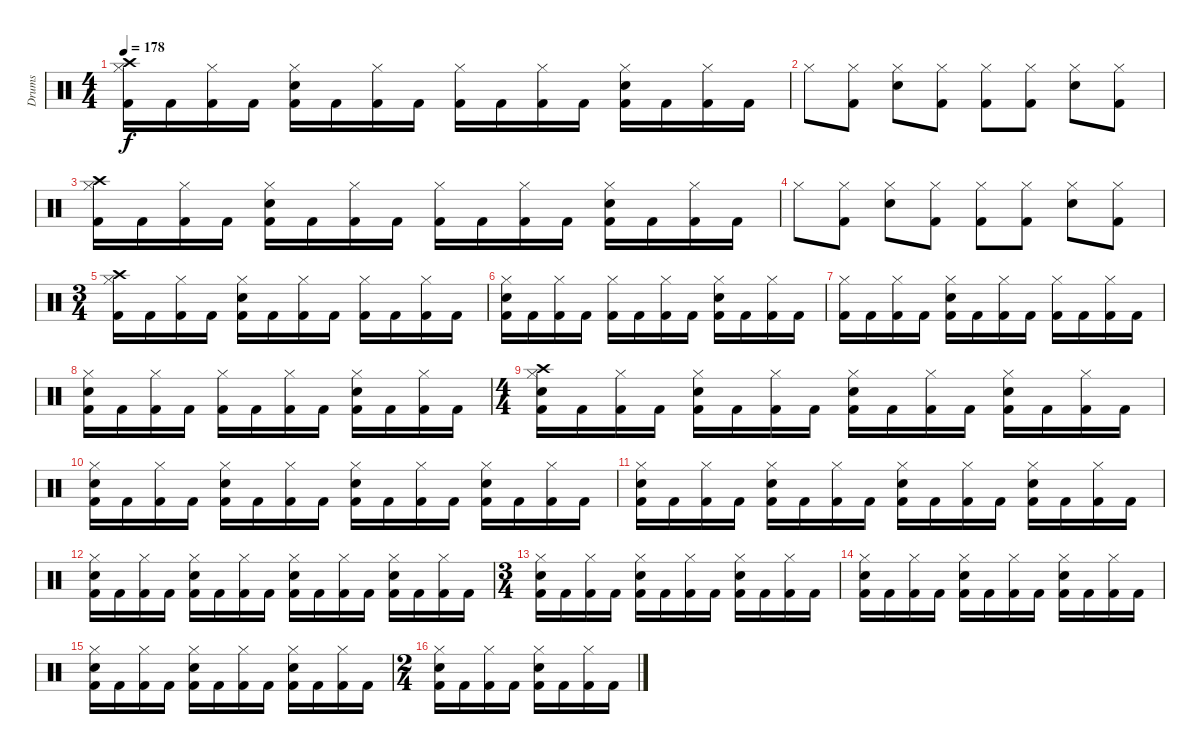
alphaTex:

\track ("Drums" "Drums") {instrument percussion}
\staff {score}
\articulation defaults
\ts (4 4)
\tempo 178
\clef neutral
\ks c
("Kick (hit) 2" "Hi-Hat (closed)" "Crash high (hit)").16{dy f} "Kick (hit) 2".16 ("Kick (hit) 2" "Hi-Hat (closed)").16 "Kick (hit) 2".16 ("Kick (hit) 2" "Snare (hit) 2" "Hi-Hat (closed)").16 "Kick (hit) 2".16 ("Kick (hit) 2" "Hi-Hat (closed)").16 "Kick (hit) 2".16 ("Kick (hit) 2" "Hi-Hat (closed)").16 "Kick (hit) 2".16 ("Kick (hit) 2" "Hi-Hat (closed)").16 "Kick (hit) 2".16 ("Kick (hit) 2" "Snare (hit) 2" "Hi-Hat (closed)").16 "Kick (hit) 2".16 ("Kick (hit) 2" "Hi-Hat (closed)").16 "Kick (hit) 2".16 |
"Hi-Hat (closed)".8 ("Kick (hit) 2" "Hi-Hat (closed)").8 ("Snare (hit) 2" "Hi-Hat (closed)").8 ("Kick (hit) 2" "Hi-Hat (closed)").8 ("Kick (hit) 2" "Hi-Hat (closed)").8 ("Kick (hit) 2" "Hi-Hat (closed)").8 ("Snare (hit) 2" "Hi-Hat (closed)").8 ("Kick (hit) 2" "Hi-Hat (closed)").8 |
("Kick (hit) 2" "Hi-Hat (closed)" "Crash high (hit)").16 "Kick (hit) 2".16 ("Kick (hit) 2" "Hi-Hat (closed)").16 "Kick (hit) 2".16 ("Kick (hit) 2" "Snare (hit) 2" "Hi-Hat (closed)").16 "Kick (hit) 2".16 ("Kick (hit) 2" "Hi-Hat (closed)").16 "Kick (hit) 2".16 ("Kick (hit) 2" "Hi-Hat (closed)").16 "Kick (hit) 2".16 ("Kick (hit) 2" "Hi-Hat (closed)").16 "Kick (hit) 2".16 ("Kick (hit) 2" "Snare (hit) 2" "Hi-Hat (closed)").16 "Kick (hit) 2".16 ("Kick (hit) 2" "Hi-Hat (closed)").16 "Kick (hit) 2".16 |
"Hi-Hat (closed)".8 ("Kick (hit) 2" "Hi-Hat (closed)").8 ("Snare (hit) 2" "Hi-Hat (closed)").8 ("Kick (hit) 2" "Hi-Hat (closed)").8 ("Kick (hit) 2" "Hi-Hat (closed)").8 ("Kick (hit) 2" "Hi-Hat (closed)").8 ("Snare (hit) 2" "Hi-Hat (closed)").8 ("Kick (hit) 2" "Hi-Hat (closed)").8 |
\ts (3 4)
("Kick (hit) 2" "Hi-Hat (closed)" "Crash high (hit)").16 "Kick (hit) 2".16 ("Kick (hit) 2" "Hi-Hat (closed)").16 "Kick (hit) 2".16 ("Kick (hit) 2" "Snare (hit) 2" "Hi-Hat (closed)").16 "Kick (hit) 2".16 ("Kick (hit) 2" "Hi-Hat (closed)").16 "Kick (hit) 2".16 ("Kick (hit) 2" "Hi-Hat (closed)").16 "Kick (hit) 2".16 ("Kick (hit) 2" "Hi-Hat (closed)").16 "Kick (hit) 2".16 |
("Kick (hit) 2" "Snare (hit) 2" "Hi-Hat (closed)").16 "Kick (hit) 2".16 ("Kick (hit) 2" "Hi-Hat (closed)").16 "Kick (hit) 2".16 ("Kick (hit) 2" "Hi-Hat (closed)").16 "Kick (hit) 2".16 ("Kick (hit) 2" "Hi-Hat (closed)").16 "Kick (hit) 2".16 ("Kick (hit) 2" "Snare (hit) 2" "Hi-Hat (closed)").16 "Kick (hit) 2".16 ("Kick (hit) 2" "Hi-Hat (closed)").16 "Kick (hit) 2".16 |
("Kick (hit) 2" "Hi-Hat (closed)").16 "Kick (hit) 2".16 ("Kick (hit) 2" "Hi-Hat (closed)").16 "Kick (hit) 2".16 ("Kick (hit) 2" "Snare (hit) 2" "Hi-Hat (closed)").16 "Kick (hit) 2".16 ("Kick (hit) 2" "Hi-Hat (closed)").16 "Kick (hit) 2".16 ("Kick (hit) 2" "Hi-Hat (closed)").16 "Kick (hit) 2".16 ("Kick (hit) 2" "Hi-Hat (closed)").16 "Kick (hit) 2".16 |
("Kick (hit) 2" "Snare (hit) 2" "Hi-Hat (closed)").16 "Kick (hit) 2".16 ("Kick (hit) 2" "Hi-Hat (closed)").16 "Kick (hit) 2".16 ("Kick (hit) 2" "Hi-Hat (closed)").16 "Kick (hit) 2".16 ("Kick (hit) 2" "Hi-Hat (closed)").16 "Kick (hit) 2".16 ("Kick (hit) 2" "Snare (hit) 2" "Hi-Hat (closed)").16 "Kick (hit) 2".16 ("Kick (hit) 2" "Hi-Hat (closed)").16 "Kick (hit) 2".16 |
\ts (4 4)
("Kick (hit) 2" "Snare (hit) 2" "Hi-Hat (closed)" "Crash high (hit)").16 "Kick (hit) 2".16 ("Kick (hit) 2" "Hi-Hat (closed)").16 "Kick (hit) 2".16 ("Kick (hit) 2" "Snare (hit) 2" "Hi-Hat (closed)").16 "Kick (hit) 2".16 ("Kick (hit) 2" "Hi-Hat (closed)").16 "Kick (hit) 2".16 ("Kick (hit) 2" "Snare (hit) 2" "Hi-Hat (closed)").16 "Kick (hit) 2".16 ("Kick (hit) 2" "Hi-Hat (closed)").16 "Kick (hit) 2".16 ("Kick (hit) 2" "Snare (hit) 2" "Hi-Hat (closed)").16 "Kick (hit) 2".16 ("Kick (hit) 2" "Hi-Hat (closed)").16 "Kick (hit) 2".16 |
("Kick (hit) 2" "Snare (hit) 2" "Hi-Hat (closed)").16 "Kick (hit) 2".16 ("Kick (hit) 2" "Hi-Hat (closed)").16 "Kick (hit) 2".16 ("Kick (hit) 2" "Snare (hit) 2" "Hi-Hat (closed)").16 "Kick (hit) 2".16 ("Kick (hit) 2" "Hi-Hat (closed)").16 "Kick (hit) 2".16 ("Kick (hit) 2" "Snare (hit) 2" "Hi-Hat (closed)").16 "Kick (hit) 2".16 ("Kick (hit) 2" "Hi-Hat (closed)").16 "Kick (hit) 2".16 ("Kick (hit) 2" "Snare (hit) 2" "Hi-Hat (closed)").16 "Kick (hit) 2".16 ("Kick (hit) 2" "Hi-Hat (closed)").16 "Kick (hit) 2".16 |
("Kick (hit) 2" "Snare (hit) 2" "Hi-Hat (closed)").16 "Kick (hit) 2".16 ("Kick (hit) 2" "Hi-Hat (closed)").16 "Kick (hit) 2".16 ("Kick (hit) 2" "Snare (hit) 2" "Hi-Hat (closed)").16 "Kick (hit) 2".16 ("Kick (hit) 2" "Hi-Hat (closed)").16 "Kick (hit) 2".16 ("Kick (hit) 2" "Snare (hit) 2" "Hi-Hat (closed)").16 "Kick (hit) 2".16 ("Kick (hit) 2" "Hi-Hat (closed)").16 "Kick (hit) 2".16 ("Kick (hit) 2" "Snare (hit) 2" "Hi-Hat (closed)").16 "Kick (hit) 2".16 ("Kick (hit) 2" "Hi-Hat (closed)").16 "Kick (hit) 2".16 |
("Kick (hit) 2" "Snare (hit) 2" "Hi-Hat (closed)").16 "Kick (hit) 2".16 ("Kick (hit) 2" "Hi-Hat (closed)").16 "Kick (hit) 2".16 ("Kick (hit) 2" "Snare (hit) 2" "Hi-Hat (closed)").16 "Kick (hit) 2".16 ("Kick (hit) 2" "Hi-Hat (closed)").16 "Kick (hit) 2".16 ("Kick (hit) 2" "Snare (hit) 2" "Hi-Hat (closed)").16 "Kick (hit) 2".16 ("Kick (hit) 2" "Hi-Hat (closed)").16 "Kick (hit) 2".16 ("Kick (hit) 2" "Snare (hit) 2" "Hi-Hat (closed)").16 "Kick (hit) 2".16 ("Kick (hit) 2" "Hi-Hat (closed)").16 "Kick (hit) 2".16 |
\ts (3 4)
("Kick (hit) 2" "Snare (hit) 2" "Hi-Hat (closed)").16 "Kick (hit) 2".16 ("Kick (hit) 2" "Hi-Hat (closed)").16 "Kick (hit) 2".16 ("Kick (hit) 2" "Snare (hit) 2" "Hi-Hat (closed)").16 "Kick (hit) 2".16 ("Kick (hit) 2" "Hi-Hat (closed)").16 "Kick (hit) 2".16 ("Kick (hit) 2" "Snare (hit) 2" "Hi-Hat (closed)").16 "Kick (hit) 2".16 ("Kick (hit) 2" "Hi-Hat (closed)").16 "Kick (hit) 2".16 |
("Kick (hit) 2" "Snare (hit) 2" "Hi-Hat (closed)").16 "Kick (hit) 2".16 ("Kick (hit) 2" "Hi-Hat (closed)").16 "Kick (hit) 2".16 ("Kick (hit) 2" "Snare (hit) 2" "Hi-Hat (closed)").16 "Kick (hit) 2".16 ("Kick (hit) 2" "Hi-Hat (closed)").16 "Kick (hit) 2".16 ("Kick (hit) 2" "Snare (hit) 2" "Hi-Hat (closed)").16 "Kick (hit) 2".16 ("Kick (hit) 2" "Hi-Hat (closed)").16 "Kick (hit) 2".16 |
("Kick (hit) 2" "Snare (hit) 2" "Hi-Hat (closed)").16 "Kick (hit) 2".16 ("Kick (hit) 2" "Hi-Hat (closed)").16 "Kick (hit) 2".16 ("Kick (hit) 2" "Snare (hit) 2" "Hi-Hat (closed)").16 "Kick (hit) 2".16 ("Kick (hit) 2" "Hi-Hat (closed)").16 "Kick (hit) 2".16 ("Kick (hit) 2" "Snare (hit) 2" "Hi-Hat (closed)").16 "Kick (hit) 2".16 ("Kick (hit) 2" "Hi-Hat (closed)").16 "Kick (hit) 2".16 |
\ts (2 4)
("Kick (hit) 2" "Snare (hit) 2" "Hi-Hat (closed)").16 "Kick (hit) 2".16 ("Kick (hit) 2" "Hi-Hat (closed)").16 "Kick (hit) 2".16 ("Kick (hit) 2" "Snare (hit) 2" "Hi-Hat (closed)").16 "Kick (hit) 2".16 ("Kick (hit) 2" "Hi-Hat (closed)").16 "Kick (hit) 2".16
